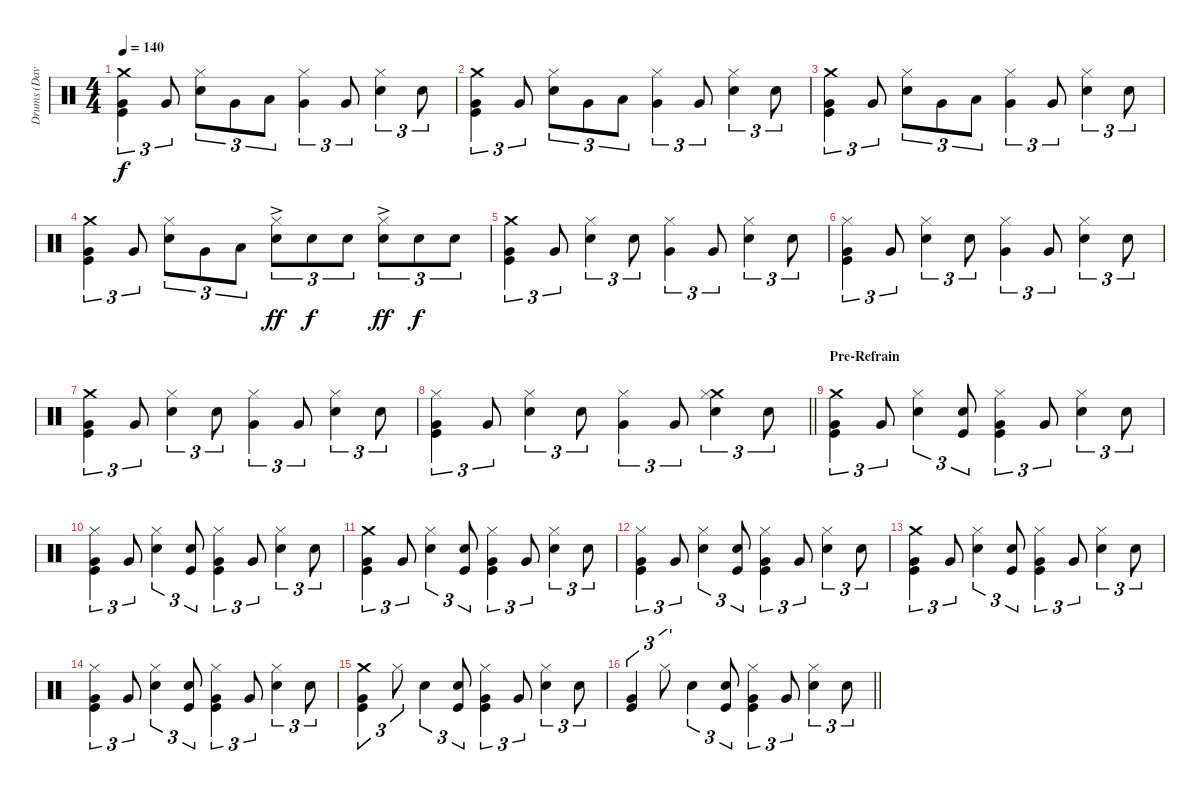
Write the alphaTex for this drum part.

\track ("Drums (Dave Atkins)" "Drums (Dav") {instrument percussion}
\staff {score}
\articulation defaults
\ts (4 4)
\tempo 140
\clef neutral
\ks c
("Crash medium (hit)" "Very Low Tom (hit)" "Kick (hit)").4{tu (3 2) dy f} "Very Low Tom (hit)".8{tu (3 2)} ("Hi-Hat (closed)" "Snare (hit) 2").8{tu (3 2)} "Very Low Tom (hit)".8{tu (3 2)} "Low Floor Tom (hit)".8{tu (3 2)} ("Hi-Hat (closed)" "Very Low Tom (hit)").4{tu (3 2)} "Very Low Tom (hit)".8{tu (3 2)} ("Hi-Hat (closed)" "Snare (hit) 2").4{tu (3 2)} "Snare (hit) 2".8{tu (3 2)} |
("Crash medium (hit)" "Very Low Tom (hit)" "Kick (hit)").4{tu (3 2)} "Very Low Tom (hit)".8{tu (3 2)} ("Hi-Hat (closed)" "Snare (hit) 2").8{tu (3 2)} "Very Low Tom (hit)".8{tu (3 2)} "Low Floor Tom (hit)".8{tu (3 2)} ("Hi-Hat (closed)" "Very Low Tom (hit)").4{tu (3 2)} "Very Low Tom (hit)".8{tu (3 2)} ("Hi-Hat (closed)" "Snare (hit) 2").4{tu (3 2)} "Snare (hit) 2".8{tu (3 2)} |
("Crash medium (hit)" "Very Low Tom (hit)" "Kick (hit)").4{tu (3 2)} "Very Low Tom (hit)".8{tu (3 2)} ("Hi-Hat (closed)" "Snare (hit) 2").8{tu (3 2)} "Very Low Tom (hit)".8{tu (3 2)} "Low Floor Tom (hit)".8{tu (3 2)} ("Hi-Hat (closed)" "Very Low Tom (hit)").4{tu (3 2)} "Very Low Tom (hit)".8{tu (3 2)} ("Hi-Hat (closed)" "Snare (hit) 2").4{tu (3 2)} "Snare (hit) 2".8{tu (3 2)} |
("Crash medium (hit)" "Very Low Tom (hit)" "Kick (hit)").4{tu (3 2)} "Very Low Tom (hit)".8{tu (3 2)} ("Hi-Hat (closed)" "Snare (hit) 2").8{tu (3 2)} "Very Low Tom (hit)".8{tu (3 2)} "Low Floor Tom (hit)".8{tu (3 2)} ("Hi-Hat (closed)" "Snare (hit) 2"{ac}).8{tu (3 2) dy ff} "Snare (hit) 2".8{tu (3 2) dy f} "Snare (hit) 2".8{tu (3 2)} ("Hi-Hat (closed)" "Snare (hit) 2"{ac}).8{tu (3 2) dy ff} "Snare (hit) 2".8{tu (3 2) dy f} "Snare (hit) 2".8{tu (3 2)} |
("Crash medium (hit)" "Very Low Tom (hit)" "Kick (hit)").4{tu (3 2)} "Very Low Tom (hit)".8{tu (3 2)} ("Hi-Hat (closed)" "Snare (hit) 2").4{tu (3 2)} "Snare (hit) 2".8{tu (3 2)} ("Hi-Hat (closed)" "Very Low Tom (hit)").4{tu (3 2)} "Very Low Tom (hit)".8{tu (3 2)} ("Hi-Hat (closed)" "Snare (hit) 2").4{tu (3 2)} "Snare (hit) 2".8{tu (3 2)} |
("Hi-Hat (closed)" "Very Low Tom (hit)" "Kick (hit)").4{tu (3 2)} "Very Low Tom (hit)".8{tu (3 2)} ("Hi-Hat (closed)" "Snare (hit) 2").4{tu (3 2)} "Snare (hit) 2".8{tu (3 2)} ("Hi-Hat (closed)" "Very Low Tom (hit)").4{tu (3 2)} "Very Low Tom (hit)".8{tu (3 2)} ("Hi-Hat (closed)" "Snare (hit) 2").4{tu (3 2)} "Snare (hit) 2".8{tu (3 2)} |
("Crash medium (hit)" "Very Low Tom (hit)" "Kick (hit)").4{tu (3 2)} "Very Low Tom (hit)".8{tu (3 2)} ("Hi-Hat (closed)" "Snare (hit) 2").4{tu (3 2)} "Snare (hit) 2".8{tu (3 2)} ("Hi-Hat (closed)" "Very Low Tom (hit)").4{tu (3 2)} "Very Low Tom (hit)".8{tu (3 2)} ("Hi-Hat (closed)" "Snare (hit) 2").4{tu (3 2)} "Snare (hit) 2".8{tu (3 2)} |
\barLineRight lightlight
("Hi-Hat (closed)" "Very Low Tom (hit)" "Kick (hit)").4{tu (3 2)} "Very Low Tom (hit)".8{tu (3 2)} ("Hi-Hat (closed)" "Snare (hit) 2").4{tu (3 2)} "Snare (hit) 2".8{tu (3 2)} ("Hi-Hat (closed)" "Very Low Tom (hit)").4{tu (3 2)} "Very Low Tom (hit)".8{tu (3 2)} ("Crash medium (hit)" "Hi-Hat (closed)" "Snare (hit) 2").4{tu (3 2)} "Snare (hit) 2".8{tu (3 2)} |
\section ("" "Pre-Refrain")
("Crash medium (hit)" "Very Low Tom (hit)" "Kick (hit)").4{tu (3 2)} "Very Low Tom (hit)".8{tu (3 2)} ("Hi-Hat (closed)" "Snare (hit) 2").4{tu (3 2)} ("Snare (hit) 2" "Kick (hit)").8{tu (3 2)} ("Hi-Hat (closed)" "Very Low Tom (hit)" "Kick (hit)").4{tu (3 2)} "Very Low Tom (hit)".8{tu (3 2)} ("Hi-Hat (closed)" "Snare (hit) 2").4{tu (3 2)} "Snare (hit) 2".8{tu (3 2)} |
("Hi-Hat (closed)" "Very Low Tom (hit)" "Kick (hit)").4{tu (3 2)} "Very Low Tom (hit)".8{tu (3 2)} ("Hi-Hat (closed)" "Snare (hit) 2").4{tu (3 2)} ("Snare (hit) 2" "Kick (hit)").8{tu (3 2)} ("Hi-Hat (closed)" "Very Low Tom (hit)" "Kick (hit)").4{tu (3 2)} "Very Low Tom (hit)".8{tu (3 2)} ("Hi-Hat (closed)" "Snare (hit) 2").4{tu (3 2)} "Snare (hit) 2".8{tu (3 2)} |
("Crash medium (hit)" "Very Low Tom (hit)" "Kick (hit)").4{tu (3 2)} "Very Low Tom (hit)".8{tu (3 2)} ("Hi-Hat (closed)" "Snare (hit) 2").4{tu (3 2)} ("Snare (hit) 2" "Kick (hit)").8{tu (3 2)} ("Hi-Hat (closed)" "Very Low Tom (hit)" "Kick (hit)").4{tu (3 2)} "Very Low Tom (hit)".8{tu (3 2)} ("Hi-Hat (closed)" "Snare (hit) 2").4{tu (3 2)} "Snare (hit) 2".8{tu (3 2)} |
("Hi-Hat (closed)" "Very Low Tom (hit)" "Kick (hit)").4{tu (3 2)} "Very Low Tom (hit)".8{tu (3 2)} ("Hi-Hat (closed)" "Snare (hit) 2").4{tu (3 2)} ("Snare (hit) 2" "Kick (hit)").8{tu (3 2)} ("Hi-Hat (closed)" "Very Low Tom (hit)" "Kick (hit)").4{tu (3 2)} "Very Low Tom (hit)".8{tu (3 2)} ("Hi-Hat (closed)" "Snare (hit) 2").4{tu (3 2)} "Snare (hit) 2".8{tu (3 2)} |
("Crash medium (hit)" "Very Low Tom (hit)" "Kick (hit)").4{tu (3 2)} "Very Low Tom (hit)".8{tu (3 2)} ("Hi-Hat (closed)" "Snare (hit) 2").4{tu (3 2)} ("Snare (hit) 2" "Kick (hit)").8{tu (3 2)} ("Hi-Hat (closed)" "Very Low Tom (hit)" "Kick (hit)").4{tu (3 2)} "Very Low Tom (hit)".8{tu (3 2)} ("Hi-Hat (closed)" "Snare (hit) 2").4{tu (3 2)} "Snare (hit) 2".8{tu (3 2)} |
("Hi-Hat (closed)" "Very Low Tom (hit)" "Kick (hit)").4{tu (3 2)} "Very Low Tom (hit)".8{tu (3 2)} ("Hi-Hat (closed)" "Snare (hit) 2").4{tu (3 2)} ("Snare (hit) 2" "Kick (hit)").8{tu (3 2)} ("Hi-Hat (closed)" "Very Low Tom (hit)" "Kick (hit)").4{tu (3 2)} "Very Low Tom (hit)".8{tu (3 2)} ("Hi-Hat (closed)" "Snare (hit) 2").4{tu (3 2)} "Snare (hit) 2".8{tu (3 2)} |
("Crash medium (hit)" "Very Low Tom (hit)" "Kick (hit)").4{tu (3 2)} "Hi-Hat (closed)".8{tu (3 2)} "Snare (hit) 2".4{tu (3 2)} ("Snare (hit) 2" "Kick (hit)").8{tu (3 2)} ("Hi-Hat (closed)" "Very Low Tom (hit)" "Kick (hit)").4{tu (3 2)} "Very Low Tom (hit)".8{tu (3 2)} ("Hi-Hat (closed)" "Snare (hit) 2").4{tu (3 2)} "Snare (hit) 2".8{tu (3 2)} |
\barLineRight lightlight
("Very Low Tom (hit)" "Kick (hit)").4{tu (3 2)} "Hi-Hat (closed)".8{tu (3 2)} "Snare (hit) 2".4{tu (3 2)} ("Snare (hit) 2" "Kick (hit)").8{tu (3 2)} ("Hi-Hat (closed)" "Very Low Tom (hit)" "Kick (hit)").4{tu (3 2)} "Very Low Tom (hit)".8{tu (3 2)} ("Hi-Hat (closed)" "Snare (hit) 2").4{tu (3 2)} "Snare (hit) 2".8{tu (3 2)}
